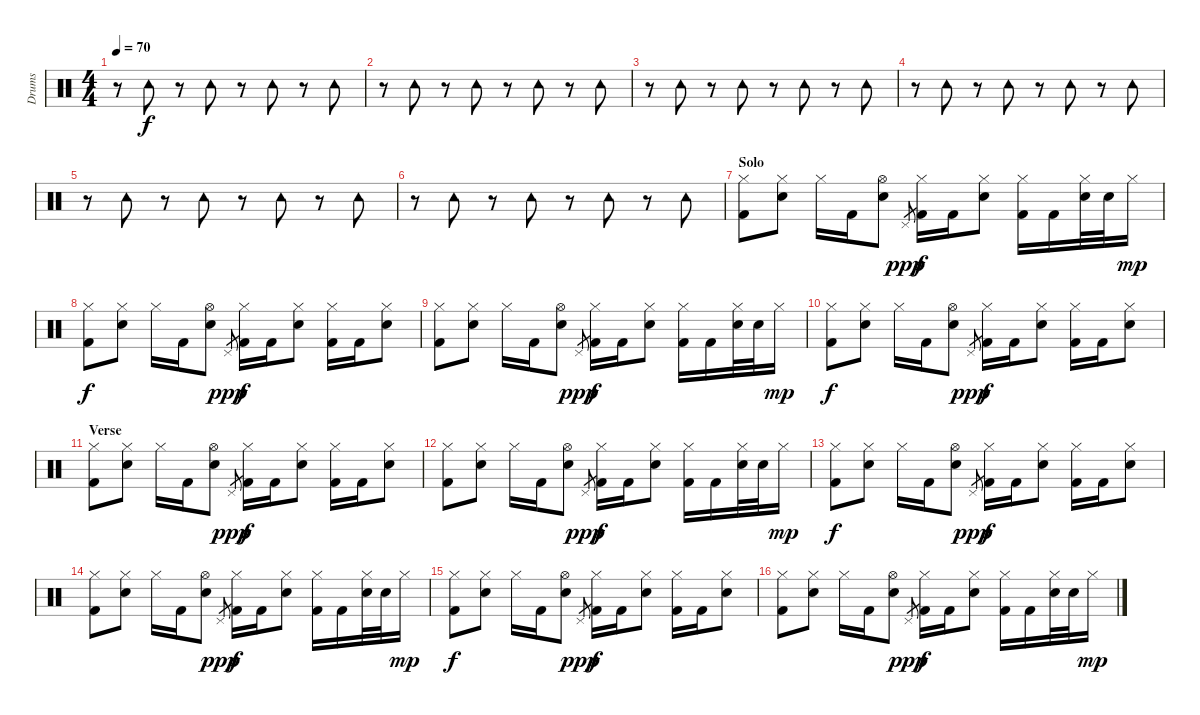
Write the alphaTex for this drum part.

\track ("Drums" "Drums") {instrument percussion}
\staff {score}
\articulation defaults
\ts (4 4)
\tempo 70
\clef neutral
\ks c
r.8{dy f} "Tambourine (hit)".8 r.8 "Tambourine (hit)".8 r.8 "Tambourine (hit)".8 r.8 "Tambourine (hit)".8 |
r.8 "Tambourine (hit)".8 r.8 "Tambourine (hit)".8 r.8 "Tambourine (hit)".8 r.8 "Tambourine (hit)".8 |
r.8 "Tambourine (hit)".8 r.8 "Tambourine (hit)".8 r.8 "Tambourine (hit)".8 r.8 "Tambourine (hit)".8 |
r.8 "Tambourine (hit)".8 r.8 "Tambourine (hit)".8 r.8 "Tambourine (hit)".8 r.8 "Tambourine (hit)".8 |
r.8 "Tambourine (hit)".8 r.8 "Tambourine (hit)".8 r.8 "Tambourine (hit)".8 r.8 "Tambourine (hit)".8 |
r.8 "Tambourine (hit)".8 r.8 "Tambourine (hit)".8 r.8 "Tambourine (hit)".8 r.8 "Tambourine (hit)".8 |
\section ("" "Solo")
("Hi-Hat (closed)" "Kick (hit) 2").8 ("Hi-Hat (closed)" "Electric Snare (hit)").8 "Hi-Hat (closed)".16 "Kick (hit) 2".16 ("Hi-Hat (open)" "Electric Snare (hit)").8 "Pedal Hi-Hat (hit)".8{gr dy ppp} ("Hi-Hat (closed)" "Kick (hit) 2").16{dy f} "Kick (hit) 2".16 ("Hi-Hat (closed)" "Electric Snare (hit)").8 ("Hi-Hat (closed)" "Kick (hit) 2").16 "Kick (hit) 2".16 ("Hi-Hat (closed)" "Electric Snare (hit)").32 "Electric Snare (hit)".32 "Hi-Hat (closed)".16{dy mp} |
("Hi-Hat (closed)" "Kick (hit) 2").8{dy f} ("Hi-Hat (closed)" "Electric Snare (hit)").8 "Hi-Hat (closed)".16 "Kick (hit) 2".16 ("Hi-Hat (open)" "Electric Snare (hit)").8 "Pedal Hi-Hat (hit)".8{gr dy ppp} ("Hi-Hat (closed)" "Kick (hit) 2").16{dy f} "Kick (hit) 2".16 ("Hi-Hat (closed)" "Electric Snare (hit)").8 ("Hi-Hat (closed)" "Kick (hit) 2").16 "Kick (hit) 2".16 ("Hi-Hat (closed)" "Electric Snare (hit)").8 |
("Hi-Hat (closed)" "Kick (hit) 2").8 ("Hi-Hat (closed)" "Electric Snare (hit)").8 "Hi-Hat (closed)".16 "Kick (hit) 2".16 ("Hi-Hat (open)" "Electric Snare (hit)").8 "Pedal Hi-Hat (hit)".8{gr dy ppp} ("Hi-Hat (closed)" "Kick (hit) 2").16{dy f} "Kick (hit) 2".16 ("Hi-Hat (closed)" "Electric Snare (hit)").8 ("Hi-Hat (closed)" "Kick (hit) 2").16 "Kick (hit) 2".16 ("Hi-Hat (closed)" "Electric Snare (hit)").32 "Electric Snare (hit)".32 "Hi-Hat (closed)".16{dy mp} |
("Hi-Hat (closed)" "Kick (hit) 2").8{dy f} ("Hi-Hat (closed)" "Electric Snare (hit)").8 "Hi-Hat (closed)".16 "Kick (hit) 2".16 ("Hi-Hat (open)" "Electric Snare (hit)").8 "Pedal Hi-Hat (hit)".8{gr dy ppp} ("Hi-Hat (closed)" "Kick (hit) 2").16{dy f} "Kick (hit) 2".16 ("Hi-Hat (closed)" "Electric Snare (hit)").8 ("Hi-Hat (closed)" "Kick (hit) 2").16 "Kick (hit) 2".16 ("Hi-Hat (closed)" "Electric Snare (hit)").8 |
\section ("" "Verse")
("Hi-Hat (closed)" "Kick (hit) 2").8 ("Hi-Hat (closed)" "Electric Snare (hit)").8 "Hi-Hat (closed)".16 "Kick (hit) 2".16 ("Hi-Hat (open)" "Electric Snare (hit)").8 "Pedal Hi-Hat (hit)".8{gr dy ppp} ("Hi-Hat (closed)" "Kick (hit) 2").16{dy f} "Kick (hit) 2".16 ("Hi-Hat (closed)" "Electric Snare (hit)").8 ("Hi-Hat (closed)" "Kick (hit) 2").16 "Kick (hit) 2".16 ("Hi-Hat (closed)" "Electric Snare (hit)").8 |
("Hi-Hat (closed)" "Kick (hit) 2").8 ("Hi-Hat (closed)" "Electric Snare (hit)").8 "Hi-Hat (closed)".16 "Kick (hit) 2".16 ("Hi-Hat (open)" "Electric Snare (hit)").8 "Pedal Hi-Hat (hit)".8{gr dy ppp} ("Hi-Hat (closed)" "Kick (hit) 2").16{dy f} "Kick (hit) 2".16 ("Hi-Hat (closed)" "Electric Snare (hit)").8 ("Hi-Hat (closed)" "Kick (hit) 2").16 "Kick (hit) 2".16 ("Hi-Hat (closed)" "Electric Snare (hit)").32 "Electric Snare (hit)".32 "Hi-Hat (closed)".16{dy mp} |
("Hi-Hat (closed)" "Kick (hit) 2").8{dy f} ("Hi-Hat (closed)" "Electric Snare (hit)").8 "Hi-Hat (closed)".16 "Kick (hit) 2".16 ("Hi-Hat (open)" "Electric Snare (hit)").8 "Pedal Hi-Hat (hit)".8{gr dy ppp} ("Hi-Hat (closed)" "Kick (hit) 2").16{dy f} "Kick (hit) 2".16 ("Hi-Hat (closed)" "Electric Snare (hit)").8 ("Hi-Hat (closed)" "Kick (hit) 2").16 "Kick (hit) 2".16 ("Hi-Hat (closed)" "Electric Snare (hit)").8 |
("Hi-Hat (closed)" "Kick (hit) 2").8 ("Hi-Hat (closed)" "Electric Snare (hit)").8 "Hi-Hat (closed)".16 "Kick (hit) 2".16 ("Hi-Hat (open)" "Electric Snare (hit)").8 "Pedal Hi-Hat (hit)".8{gr dy ppp} ("Hi-Hat (closed)" "Kick (hit) 2").16{dy f} "Kick (hit) 2".16 ("Hi-Hat (closed)" "Electric Snare (hit)").8 ("Hi-Hat (closed)" "Kick (hit) 2").16 "Kick (hit) 2".16 ("Hi-Hat (closed)" "Electric Snare (hit)").32 "Electric Snare (hit)".32 "Hi-Hat (closed)".16{dy mp} |
("Hi-Hat (closed)" "Kick (hit) 2").8{dy f} ("Hi-Hat (closed)" "Electric Snare (hit)").8 "Hi-Hat (closed)".16 "Kick (hit) 2".16 ("Hi-Hat (open)" "Electric Snare (hit)").8 "Pedal Hi-Hat (hit)".8{gr dy ppp} ("Hi-Hat (closed)" "Kick (hit) 2").16{dy f} "Kick (hit) 2".16 ("Hi-Hat (closed)" "Electric Snare (hit)").8 ("Hi-Hat (closed)" "Kick (hit) 2").16 "Kick (hit) 2".16 ("Hi-Hat (closed)" "Electric Snare (hit)").8 |
("Hi-Hat (closed)" "Kick (hit) 2").8 ("Hi-Hat (closed)" "Electric Snare (hit)").8 "Hi-Hat (closed)".16 "Kick (hit) 2".16 ("Hi-Hat (open)" "Electric Snare (hit)").8 "Pedal Hi-Hat (hit)".8{gr dy ppp} ("Hi-Hat (closed)" "Kick (hit) 2").16{dy f} "Kick (hit) 2".16 ("Hi-Hat (closed)" "Electric Snare (hit)").8 ("Hi-Hat (closed)" "Kick (hit) 2").16 "Kick (hit) 2".16 ("Hi-Hat (closed)" "Electric Snare (hit)").32 "Electric Snare (hit)".32 "Hi-Hat (closed)".16{dy mp}
